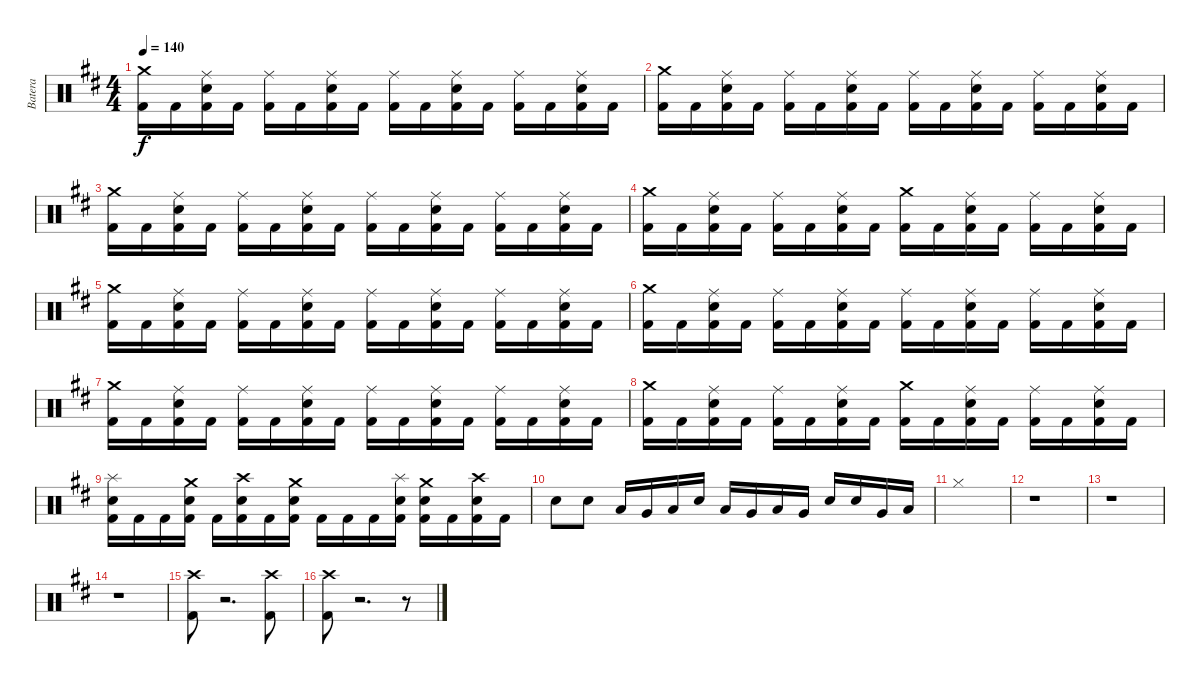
\track ("Batera" "Batera") {instrument percussion}
\staff {score}
\articulation defaults
\ts (4 4)
\tempo 140
\clef neutral
\ks bminor
("Crash medium (hit)" "Kick (hit) 2").16{dy f} "Kick (hit) 2".16 ("Ride (middle)" "Electric Snare (hit)" "Kick (hit) 2").16 "Kick (hit) 2".16 ("Ride (middle)" "Kick (hit) 2").16 "Kick (hit) 2".16 ("Ride (middle)" "Electric Snare (hit)" "Kick (hit) 2").16 "Kick (hit) 2".16 ("Ride (middle)" "Kick (hit) 2").16 "Kick (hit) 2".16 ("Ride (middle)" "Electric Snare (hit)" "Kick (hit) 2").16 "Kick (hit) 2".16 ("Ride (middle)" "Kick (hit) 2").16 "Kick (hit) 2".16 ("Ride (middle)" "Electric Snare (hit)" "Kick (hit) 2").16 "Kick (hit) 2".16 |
("Crash medium (hit)" "Kick (hit) 2").16 "Kick (hit) 2".16 ("Ride (middle)" "Electric Snare (hit)" "Kick (hit) 2").16 "Kick (hit) 2".16 ("Ride (middle)" "Kick (hit) 2").16 "Kick (hit) 2".16 ("Ride (middle)" "Electric Snare (hit)" "Kick (hit) 2").16 "Kick (hit) 2".16 ("Ride (middle)" "Kick (hit) 2").16 "Kick (hit) 2".16 ("Ride (middle)" "Electric Snare (hit)" "Kick (hit) 2").16 "Kick (hit) 2".16 ("Ride (middle)" "Kick (hit) 2").16 "Kick (hit) 2".16 ("Ride (middle)" "Electric Snare (hit)" "Kick (hit) 2").16 "Kick (hit) 2".16 |
("Crash medium (hit)" "Kick (hit) 2").16 "Kick (hit) 2".16 ("Ride (middle)" "Electric Snare (hit)" "Kick (hit) 2").16 "Kick (hit) 2".16 ("Ride (middle)" "Kick (hit) 2").16 "Kick (hit) 2".16 ("Ride (middle)" "Electric Snare (hit)" "Kick (hit) 2").16 "Kick (hit) 2".16 ("Ride (middle)" "Kick (hit) 2").16 "Kick (hit) 2".16 ("Ride (middle)" "Electric Snare (hit)" "Kick (hit) 2").16 "Kick (hit) 2".16 ("Ride (middle)" "Kick (hit) 2").16 "Kick (hit) 2".16 ("Ride (middle)" "Electric Snare (hit)" "Kick (hit) 2").16 "Kick (hit) 2".16 |
("Crash medium (hit)" "Kick (hit) 2").16 "Kick (hit) 2".16 ("Ride (middle)" "Electric Snare (hit)" "Kick (hit) 2").16 "Kick (hit) 2".16 ("Ride (middle)" "Kick (hit) 2").16 "Kick (hit) 2".16 ("Ride (middle)" "Electric Snare (hit)" "Kick (hit) 2").16 "Kick (hit) 2".16 ("Crash medium (hit)" "Kick (hit) 2").16 "Kick (hit) 2".16 ("Ride (middle)" "Electric Snare (hit)" "Kick (hit) 2").16 "Kick (hit) 2".16 ("Ride (middle)" "Kick (hit) 2").16 "Kick (hit) 2".16 ("Ride (middle)" "Electric Snare (hit)" "Kick (hit) 2").16 "Kick (hit) 2".16 |
("Crash medium (hit)" "Kick (hit) 2").16 "Kick (hit) 2".16 ("Ride (middle)" "Electric Snare (hit)" "Kick (hit) 2").16 "Kick (hit) 2".16 ("Ride (middle)" "Kick (hit) 2").16 "Kick (hit) 2".16 ("Ride (middle)" "Electric Snare (hit)" "Kick (hit) 2").16 "Kick (hit) 2".16 ("Ride (middle)" "Kick (hit) 2").16 "Kick (hit) 2".16 ("Ride (middle)" "Electric Snare (hit)" "Kick (hit) 2").16 "Kick (hit) 2".16 ("Ride (middle)" "Kick (hit) 2").16 "Kick (hit) 2".16 ("Ride (middle)" "Electric Snare (hit)" "Kick (hit) 2").16 "Kick (hit) 2".16 |
("Crash medium (hit)" "Kick (hit) 2").16 "Kick (hit) 2".16 ("Ride (middle)" "Electric Snare (hit)" "Kick (hit) 2").16 "Kick (hit) 2".16 ("Ride (middle)" "Kick (hit) 2").16 "Kick (hit) 2".16 ("Ride (middle)" "Electric Snare (hit)" "Kick (hit) 2").16 "Kick (hit) 2".16 ("Ride (middle)" "Kick (hit) 2").16 "Kick (hit) 2".16 ("Ride (middle)" "Electric Snare (hit)" "Kick (hit) 2").16 "Kick (hit) 2".16 ("Ride (middle)" "Kick (hit) 2").16 "Kick (hit) 2".16 ("Ride (middle)" "Electric Snare (hit)" "Kick (hit) 2").16 "Kick (hit) 2".16 |
("Crash medium (hit)" "Kick (hit) 2").16 "Kick (hit) 2".16 ("Ride (middle)" "Electric Snare (hit)" "Kick (hit) 2").16 "Kick (hit) 2".16 ("Ride (middle)" "Kick (hit) 2").16 "Kick (hit) 2".16 ("Ride (middle)" "Electric Snare (hit)" "Kick (hit) 2").16 "Kick (hit) 2".16 ("Ride (middle)" "Kick (hit) 2").16 "Kick (hit) 2".16 ("Ride (middle)" "Electric Snare (hit)" "Kick (hit) 2").16 "Kick (hit) 2".16 ("Ride (middle)" "Kick (hit) 2").16 "Kick (hit) 2".16 ("Ride (middle)" "Electric Snare (hit)" "Kick (hit) 2").16 "Kick (hit) 2".16 |
("Crash medium (hit)" "Kick (hit) 2").16 "Kick (hit) 2".16 ("Ride (middle)" "Electric Snare (hit)" "Kick (hit) 2").16 "Kick (hit) 2".16 ("Ride (middle)" "Kick (hit) 2").16 "Kick (hit) 2".16 ("Ride (middle)" "Electric Snare (hit)" "Kick (hit) 2").16 "Kick (hit) 2".16 ("Crash medium (hit)" "Kick (hit) 2").16 "Kick (hit) 2".16 ("Ride (middle)" "Electric Snare (hit)" "Kick (hit) 2").16 "Kick (hit) 2".16 ("Ride (middle)" "Kick (hit) 2").16 "Kick (hit) 2".16 ("Ride (middle)" "Electric Snare (hit)" "Kick (hit) 2").16 "Kick (hit) 2".16 |
("Splash (hit)" "Electric Snare (hit)" "Kick (hit) 2").16 "Kick (hit) 2".16 "Kick (hit) 2".16 ("Crash medium (hit)" "Electric Snare (hit)" "Kick (hit) 2").16 "Kick (hit) 2".16 ("Crash high (hit)" "Electric Snare (hit)" "Kick (hit) 2").16 "Kick (hit) 2".16 ("Crash medium (hit)" "Electric Snare (hit)" "Kick (hit) 2").16 "Kick (hit) 2".16 "Kick (hit) 2".16 "Kick (hit) 2".16 ("Splash (hit)" "Electric Snare (hit)" "Kick (hit) 2").16 ("Crash medium (hit)" "Electric Snare (hit)" "Kick (hit) 2").16 "Kick (hit) 2".16 ("Crash high (hit)" "Electric Snare (hit)" "Kick (hit) 2").16 "Kick (hit) 2".16 |
"Electric Snare (hit)".8 "Electric Snare (hit)".8 "Low Floor Tom (hit)".16 "Very Low Tom (hit)".16 "Low Floor Tom (hit)".16 "Electric Snare (hit)".16 "Low Tom (hit)".16 "Very Low Tom (hit)".16 "Low Floor Tom (hit)".16 "Very Low Tom (hit)".16 "Electric Snare (hit)".16 "Electric Snare (hit)".16 "Very Low Tom (hit)".16 "Low Floor Tom (hit)".16 |
"Hi-Hat (closed)".1 |
r.1 |
r.1 |
r.1 |
("Crash high (hit)" "Kick (hit) 2").8 r.2{d} ("Crash high (hit)" "Kick (hit) 2").8 |
("Crash high (hit)" "Kick (hit) 2").8 r.2{d} r.8
